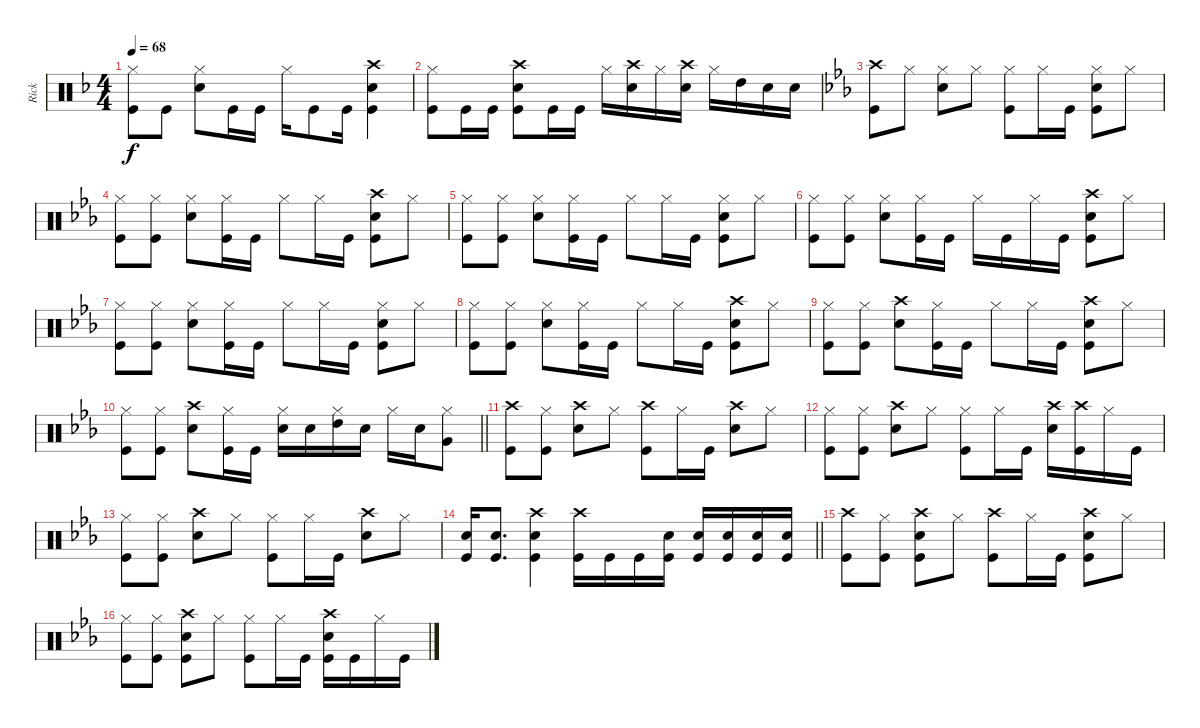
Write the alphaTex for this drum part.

\track ("Rick " "Rick ") {instrument percussion}
\staff {score}
\articulation defaults
\ts (4 4)
\tempo 68
\clef neutral
\ks dminor
("Hi-Hat (closed)" "Kick (hit)").8{dy f} "Kick (hit)".8 ("Hi-Hat (closed)" "Snare (hit) 2").8 "Kick (hit)".16 "Kick (hit)".16 "Hi-Hat (closed)".16 "Kick (hit)".8 "Kick (hit)".16 ("Crash high (hit)" "Snare (hit) 2" "Kick (hit)").4 |
("Hi-Hat (closed)" "Kick (hit)").8 "Kick (hit)".16 "Kick (hit)".16 ("Crash high (hit)" "Snare (hit) 2" "Kick (hit)").8 "Kick (hit)".16 "Kick (hit)".16 "Hi-Hat (closed)".16 ("Crash high (hit)" "Snare (hit) 2").16 "Hi-Hat (closed)".16 ("Crash high (hit)" "Snare (hit) 2").16 "Hi-Hat (closed)".16 "High Tom (hit)".16 "Snare (hit) 2".16 "Snare (hit) 2".16 |
\ks eb
("Crash high (hit)" "Kick (hit)").8 "Hi-Hat (closed)".8 ("Hi-Hat (closed)" "Snare (hit) 2").8 "Hi-Hat (closed)".8 ("Hi-Hat (closed)" "Kick (hit)").8 "Hi-Hat (closed)".16 "Kick (hit)".16 ("Hi-Hat (closed)" "Snare (hit) 2" "Kick (hit)").8 "Hi-Hat (closed)".8 |
("Hi-Hat (closed)" "Kick (hit)").8 ("Hi-Hat (closed)" "Kick (hit)").8 ("Hi-Hat (closed)" "Snare (hit) 2").8 ("Hi-Hat (closed)" "Kick (hit)").16 "Kick (hit)".16 "Hi-Hat (closed)".8 "Hi-Hat (closed)".16 "Kick (hit)".16 ("Crash high (hit)" "Snare (hit) 2" "Kick (hit)").8 "Hi-Hat (closed)".8 |
("Hi-Hat (closed)" "Kick (hit)").8 ("Hi-Hat (closed)" "Kick (hit)").8 ("Hi-Hat (closed)" "Snare (hit) 2").8 ("Hi-Hat (closed)" "Kick (hit)").16 "Kick (hit)".16 "Hi-Hat (closed)".8 "Hi-Hat (closed)".16 "Kick (hit)".16 ("Hi-Hat (closed)" "Snare (hit) 2" "Kick (hit)").8 "Hi-Hat (closed)".8 |
("Hi-Hat (closed)" "Kick (hit)").8 ("Hi-Hat (closed)" "Kick (hit)").8 ("Hi-Hat (closed)" "Snare (hit) 2").8 ("Hi-Hat (closed)" "Kick (hit)").16 "Kick (hit)".16 "Hi-Hat (closed)".16 "Kick (hit)".16 "Hi-Hat (closed)".16 "Kick (hit)".16 ("Crash high (hit)" "Snare (hit) 2" "Kick (hit)").8 "Hi-Hat (closed)".8 |
("Hi-Hat (closed)" "Kick (hit)").8 ("Hi-Hat (closed)" "Kick (hit)").8 ("Hi-Hat (closed)" "Snare (hit) 2").8 ("Hi-Hat (closed)" "Kick (hit)").16 "Kick (hit)".16 "Hi-Hat (closed)".8 "Hi-Hat (closed)".16 "Kick (hit)".16 ("Hi-Hat (closed)" "Snare (hit) 2" "Kick (hit)").8 "Hi-Hat (closed)".8 |
("Hi-Hat (closed)" "Kick (hit)").8 ("Hi-Hat (closed)" "Kick (hit)").8 ("Hi-Hat (closed)" "Snare (hit) 2").8 ("Hi-Hat (closed)" "Kick (hit)").16 "Kick (hit)".16 "Hi-Hat (closed)".8 "Hi-Hat (closed)".16 "Kick (hit)".16 ("Crash high (hit)" "Snare (hit) 2" "Kick (hit)").8 "Hi-Hat (closed)".8 |
("Hi-Hat (closed)" "Kick (hit)").8 ("Hi-Hat (closed)" "Kick (hit)").8 ("Crash high (hit)" "Snare (hit) 2").8 ("Hi-Hat (closed)" "Kick (hit)").16 "Kick (hit)".16 "Hi-Hat (closed)".8 "Hi-Hat (closed)".16 "Kick (hit)".16 ("Crash high (hit)" "Snare (hit) 2" "Kick (hit)").8 "Hi-Hat (closed)".8 |
\barLineRight lightlight
("Hi-Hat (closed)" "Kick (hit)").8 ("Hi-Hat (closed)" "Kick (hit)").8 ("Crash high (hit)" "Snare (hit) 2").8 ("Hi-Hat (closed)" "Kick (hit)").16 "Kick (hit)".16 ("Hi-Hat (closed)" "Snare (hit) 2").16 "Snare (hit) 2".16 ("Hi-Hat (closed)" "High Tom (hit)").16 "Snare (hit) 2".16 "Hi-Hat (closed)".16 "Snare (hit) 2".16 ("Hi-Hat (closed)" "Very Low Tom (hit)").8 |
("Crash high (hit)" "Kick (hit)").8 ("Hi-Hat (closed)" "Kick (hit)").8 ("Crash high (hit)" "Snare (hit) 2").8 "Hi-Hat (closed)".8 ("Crash high (hit)" "Kick (hit)").8 "Hi-Hat (closed)".16 "Kick (hit)".16 ("Crash high (hit)" "Snare (hit) 2").8 "Hi-Hat (closed)".8 |
("Hi-Hat (closed)" "Kick (hit)").8 ("Hi-Hat (closed)" "Kick (hit)").8 ("Crash high (hit)" "Snare (hit) 2").8 "Hi-Hat (closed)".8 ("Hi-Hat (closed)" "Kick (hit)").8 "Hi-Hat (closed)".16 "Kick (hit)".16 ("Crash high (hit)" "Snare (hit) 2").16 ("Crash high (hit)" "Kick (hit)").16 "Hi-Hat (closed)".16 "Kick (hit)".16 |
("Hi-Hat (closed)" "Kick (hit)").8 ("Hi-Hat (closed)" "Kick (hit)").8 ("Crash high (hit)" "Snare (hit) 2").8 "Hi-Hat (closed)".8 ("Hi-Hat (closed)" "Kick (hit)").8 "Hi-Hat (closed)".16 "Kick (hit)".16 ("Crash high (hit)" "Snare (hit) 2").8 "Hi-Hat (closed)".8 |
\barLineRight lightlight
("Snare (hit) 2" "Kick (hit)").16 ("Snare (hit) 2" "Kick (hit)").8{d} ("Crash high (hit)" "Snare (hit) 2" "Kick (hit)").4 ("Crash high (hit)" "Kick (hit)").16 "Kick (hit)".16 "Kick (hit)".16 ("Snare (hit) 2" "Kick (hit)").16 ("Snare (hit) 2" "Kick (hit)").16 ("Snare (hit) 2" "Kick (hit)").16 ("Snare (hit) 2" "Kick (hit)").16 ("Snare (hit) 2" "Kick (hit)").16 |
("Crash high (hit)" "Kick (hit)").8 ("Hi-Hat (closed)" "Kick (hit)").8 ("Crash high (hit)" "Snare (hit) 2" "Kick (hit)").8 "Hi-Hat (closed)".8 ("Crash high (hit)" "Kick (hit)").8 "Hi-Hat (closed)".16 "Kick (hit)".16 ("Crash high (hit)" "Snare (hit) 2" "Kick (hit)").8 "Hi-Hat (closed)".8 |
("Hi-Hat (closed)" "Kick (hit)").8 ("Hi-Hat (closed)" "Kick (hit)").8 ("Crash high (hit)" "Snare (hit) 2" "Kick (hit)").8 "Hi-Hat (closed)".8 ("Hi-Hat (closed)" "Kick (hit)").8 "Hi-Hat (closed)".16 "Kick (hit)".16 ("Crash high (hit)" "Snare (hit) 2" "Kick (hit)").16 "Kick (hit)".16 "Hi-Hat (closed)".16 "Kick (hit)".16
